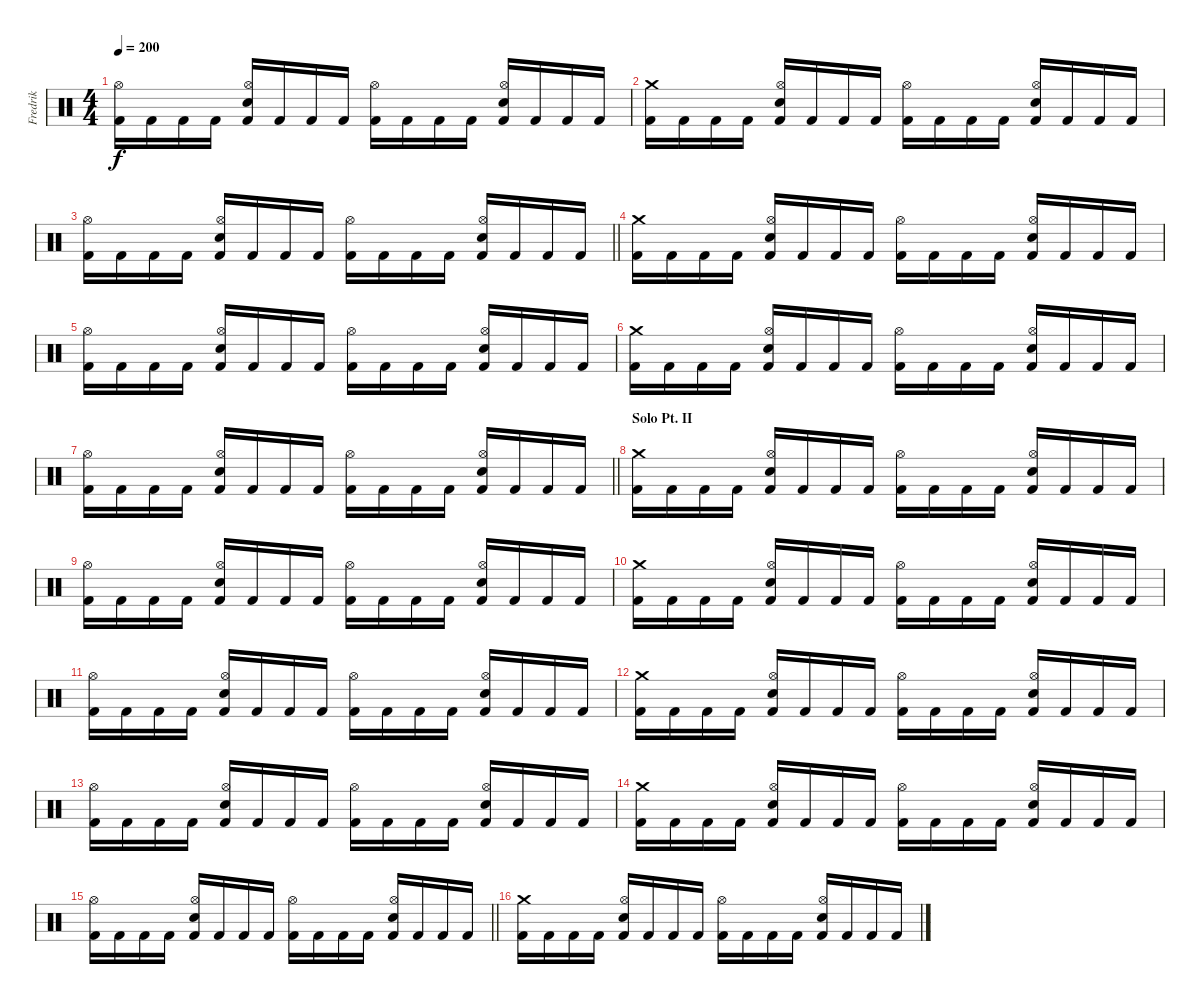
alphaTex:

\track ("Fredrik" "Fredrik") {instrument percussion}
\staff {score}
\articulation defaults
\ts (4 4)
\tempo 200
\clef neutral
\ks c
("Kick (hit) 2" "Hi-Hat (open)").16{dy f} "Kick (hit) 2".16 "Kick (hit) 2".16 "Kick (hit) 2".16 ("Kick (hit) 2" "Snare (hit) 2" "Hi-Hat (open)").16 "Kick (hit) 2".16 "Kick (hit) 2".16 "Kick (hit) 2".16 ("Kick (hit) 2" "Hi-Hat (open)").16 "Kick (hit) 2".16 "Kick (hit) 2".16 "Kick (hit) 2".16 ("Kick (hit) 2" "Snare (hit) 2" "Hi-Hat (open)").16 "Kick (hit) 2".16 "Kick (hit) 2".16 "Kick (hit) 2".16 |
("Kick (hit) 2" "Crash medium (hit)").16 "Kick (hit) 2".16 "Kick (hit) 2".16 "Kick (hit) 2".16 ("Kick (hit) 2" "Snare (hit) 2" "Hi-Hat (open)").16 "Kick (hit) 2".16 "Kick (hit) 2".16 "Kick (hit) 2".16 ("Kick (hit) 2" "Hi-Hat (open)").16 "Kick (hit) 2".16 "Kick (hit) 2".16 "Kick (hit) 2".16 ("Kick (hit) 2" "Snare (hit) 2" "Hi-Hat (open)").16 "Kick (hit) 2".16 "Kick (hit) 2".16 "Kick (hit) 2".16 |
\barLineRight lightlight
("Kick (hit) 2" "Hi-Hat (open)").16 "Kick (hit) 2".16 "Kick (hit) 2".16 "Kick (hit) 2".16 ("Kick (hit) 2" "Snare (hit) 2" "Hi-Hat (open)").16 "Kick (hit) 2".16 "Kick (hit) 2".16 "Kick (hit) 2".16 ("Kick (hit) 2" "Hi-Hat (open)").16 "Kick (hit) 2".16 "Kick (hit) 2".16 "Kick (hit) 2".16 ("Kick (hit) 2" "Snare (hit) 2" "Hi-Hat (open)").16 "Kick (hit) 2".16 "Kick (hit) 2".16 "Kick (hit) 2".16 |
("Kick (hit) 2" "Crash medium (hit)").16 "Kick (hit) 2".16 "Kick (hit) 2".16 "Kick (hit) 2".16 ("Kick (hit) 2" "Snare (hit) 2" "Hi-Hat (open)").16 "Kick (hit) 2".16 "Kick (hit) 2".16 "Kick (hit) 2".16 ("Kick (hit) 2" "Hi-Hat (open)").16 "Kick (hit) 2".16 "Kick (hit) 2".16 "Kick (hit) 2".16 ("Kick (hit) 2" "Snare (hit) 2" "Hi-Hat (open)").16 "Kick (hit) 2".16 "Kick (hit) 2".16 "Kick (hit) 2".16 |
("Kick (hit) 2" "Hi-Hat (open)").16 "Kick (hit) 2".16 "Kick (hit) 2".16 "Kick (hit) 2".16 ("Kick (hit) 2" "Snare (hit) 2" "Hi-Hat (open)").16 "Kick (hit) 2".16 "Kick (hit) 2".16 "Kick (hit) 2".16 ("Kick (hit) 2" "Hi-Hat (open)").16 "Kick (hit) 2".16 "Kick (hit) 2".16 "Kick (hit) 2".16 ("Kick (hit) 2" "Snare (hit) 2" "Hi-Hat (open)").16 "Kick (hit) 2".16 "Kick (hit) 2".16 "Kick (hit) 2".16 |
("Kick (hit) 2" "Crash medium (hit)").16 "Kick (hit) 2".16 "Kick (hit) 2".16 "Kick (hit) 2".16 ("Kick (hit) 2" "Snare (hit) 2" "Hi-Hat (open)").16 "Kick (hit) 2".16 "Kick (hit) 2".16 "Kick (hit) 2".16 ("Kick (hit) 2" "Hi-Hat (open)").16 "Kick (hit) 2".16 "Kick (hit) 2".16 "Kick (hit) 2".16 ("Kick (hit) 2" "Snare (hit) 2" "Hi-Hat (open)").16 "Kick (hit) 2".16 "Kick (hit) 2".16 "Kick (hit) 2".16 |
\barLineRight lightlight
("Kick (hit) 2" "Hi-Hat (open)").16 "Kick (hit) 2".16 "Kick (hit) 2".16 "Kick (hit) 2".16 ("Kick (hit) 2" "Snare (hit) 2" "Hi-Hat (open)").16 "Kick (hit) 2".16 "Kick (hit) 2".16 "Kick (hit) 2".16 ("Kick (hit) 2" "Hi-Hat (open)").16 "Kick (hit) 2".16 "Kick (hit) 2".16 "Kick (hit) 2".16 ("Kick (hit) 2" "Snare (hit) 2" "Hi-Hat (open)").16 "Kick (hit) 2".16 "Kick (hit) 2".16 "Kick (hit) 2".16 |
\section ("" "Solo Pt. II")
("Kick (hit) 2" "Crash medium (hit)").16 "Kick (hit) 2".16 "Kick (hit) 2".16 "Kick (hit) 2".16 ("Kick (hit) 2" "Snare (hit) 2" "Hi-Hat (open)").16 "Kick (hit) 2".16 "Kick (hit) 2".16 "Kick (hit) 2".16 ("Kick (hit) 2" "Hi-Hat (open)").16 "Kick (hit) 2".16 "Kick (hit) 2".16 "Kick (hit) 2".16 ("Kick (hit) 2" "Snare (hit) 2" "Hi-Hat (open)").16 "Kick (hit) 2".16 "Kick (hit) 2".16 "Kick (hit) 2".16 |
("Kick (hit) 2" "Hi-Hat (open)").16 "Kick (hit) 2".16 "Kick (hit) 2".16 "Kick (hit) 2".16 ("Kick (hit) 2" "Snare (hit) 2" "Hi-Hat (open)").16 "Kick (hit) 2".16 "Kick (hit) 2".16 "Kick (hit) 2".16 ("Kick (hit) 2" "Hi-Hat (open)").16 "Kick (hit) 2".16 "Kick (hit) 2".16 "Kick (hit) 2".16 ("Kick (hit) 2" "Snare (hit) 2" "Hi-Hat (open)").16 "Kick (hit) 2".16 "Kick (hit) 2".16 "Kick (hit) 2".16 |
("Kick (hit) 2" "Crash medium (hit)").16 "Kick (hit) 2".16 "Kick (hit) 2".16 "Kick (hit) 2".16 ("Kick (hit) 2" "Snare (hit) 2" "Hi-Hat (open)").16 "Kick (hit) 2".16 "Kick (hit) 2".16 "Kick (hit) 2".16 ("Kick (hit) 2" "Hi-Hat (open)").16 "Kick (hit) 2".16 "Kick (hit) 2".16 "Kick (hit) 2".16 ("Kick (hit) 2" "Snare (hit) 2" "Hi-Hat (open)").16 "Kick (hit) 2".16 "Kick (hit) 2".16 "Kick (hit) 2".16 |
("Kick (hit) 2" "Hi-Hat (open)").16 "Kick (hit) 2".16 "Kick (hit) 2".16 "Kick (hit) 2".16 ("Kick (hit) 2" "Snare (hit) 2" "Hi-Hat (open)").16 "Kick (hit) 2".16 "Kick (hit) 2".16 "Kick (hit) 2".16 ("Kick (hit) 2" "Hi-Hat (open)").16 "Kick (hit) 2".16 "Kick (hit) 2".16 "Kick (hit) 2".16 ("Kick (hit) 2" "Snare (hit) 2" "Hi-Hat (open)").16 "Kick (hit) 2".16 "Kick (hit) 2".16 "Kick (hit) 2".16 |
("Kick (hit) 2" "Crash medium (hit)").16 "Kick (hit) 2".16 "Kick (hit) 2".16 "Kick (hit) 2".16 ("Kick (hit) 2" "Snare (hit) 2" "Hi-Hat (open)").16 "Kick (hit) 2".16 "Kick (hit) 2".16 "Kick (hit) 2".16 ("Kick (hit) 2" "Hi-Hat (open)").16 "Kick (hit) 2".16 "Kick (hit) 2".16 "Kick (hit) 2".16 ("Kick (hit) 2" "Snare (hit) 2" "Hi-Hat (open)").16 "Kick (hit) 2".16 "Kick (hit) 2".16 "Kick (hit) 2".16 |
("Kick (hit) 2" "Hi-Hat (open)").16 "Kick (hit) 2".16 "Kick (hit) 2".16 "Kick (hit) 2".16 ("Kick (hit) 2" "Snare (hit) 2" "Hi-Hat (open)").16 "Kick (hit) 2".16 "Kick (hit) 2".16 "Kick (hit) 2".16 ("Kick (hit) 2" "Hi-Hat (open)").16 "Kick (hit) 2".16 "Kick (hit) 2".16 "Kick (hit) 2".16 ("Kick (hit) 2" "Snare (hit) 2" "Hi-Hat (open)").16 "Kick (hit) 2".16 "Kick (hit) 2".16 "Kick (hit) 2".16 |
("Kick (hit) 2" "Crash medium (hit)").16 "Kick (hit) 2".16 "Kick (hit) 2".16 "Kick (hit) 2".16 ("Kick (hit) 2" "Snare (hit) 2" "Hi-Hat (open)").16 "Kick (hit) 2".16 "Kick (hit) 2".16 "Kick (hit) 2".16 ("Kick (hit) 2" "Hi-Hat (open)").16 "Kick (hit) 2".16 "Kick (hit) 2".16 "Kick (hit) 2".16 ("Kick (hit) 2" "Snare (hit) 2" "Hi-Hat (open)").16 "Kick (hit) 2".16 "Kick (hit) 2".16 "Kick (hit) 2".16 |
\barLineRight lightlight
("Kick (hit) 2" "Hi-Hat (open)").16 "Kick (hit) 2".16 "Kick (hit) 2".16 "Kick (hit) 2".16 ("Kick (hit) 2" "Snare (hit) 2" "Hi-Hat (open)").16 "Kick (hit) 2".16 "Kick (hit) 2".16 "Kick (hit) 2".16 ("Kick (hit) 2" "Hi-Hat (open)").16 "Kick (hit) 2".16 "Kick (hit) 2".16 "Kick (hit) 2".16 ("Kick (hit) 2" "Snare (hit) 2" "Hi-Hat (open)").16 "Kick (hit) 2".16 "Kick (hit) 2".16 "Kick (hit) 2".16 |
\section ("" "")
("Kick (hit) 2" "Crash medium (hit)").16 "Kick (hit) 2".16 "Kick (hit) 2".16 "Kick (hit) 2".16 ("Kick (hit) 2" "Snare (hit) 2" "Hi-Hat (open)").16 "Kick (hit) 2".16 "Kick (hit) 2".16 "Kick (hit) 2".16 ("Kick (hit) 2" "Hi-Hat (open)").16 "Kick (hit) 2".16 "Kick (hit) 2".16 "Kick (hit) 2".16 ("Kick (hit) 2" "Snare (hit) 2" "Hi-Hat (open)").16 "Kick (hit) 2".16 "Kick (hit) 2".16 "Kick (hit) 2".16
